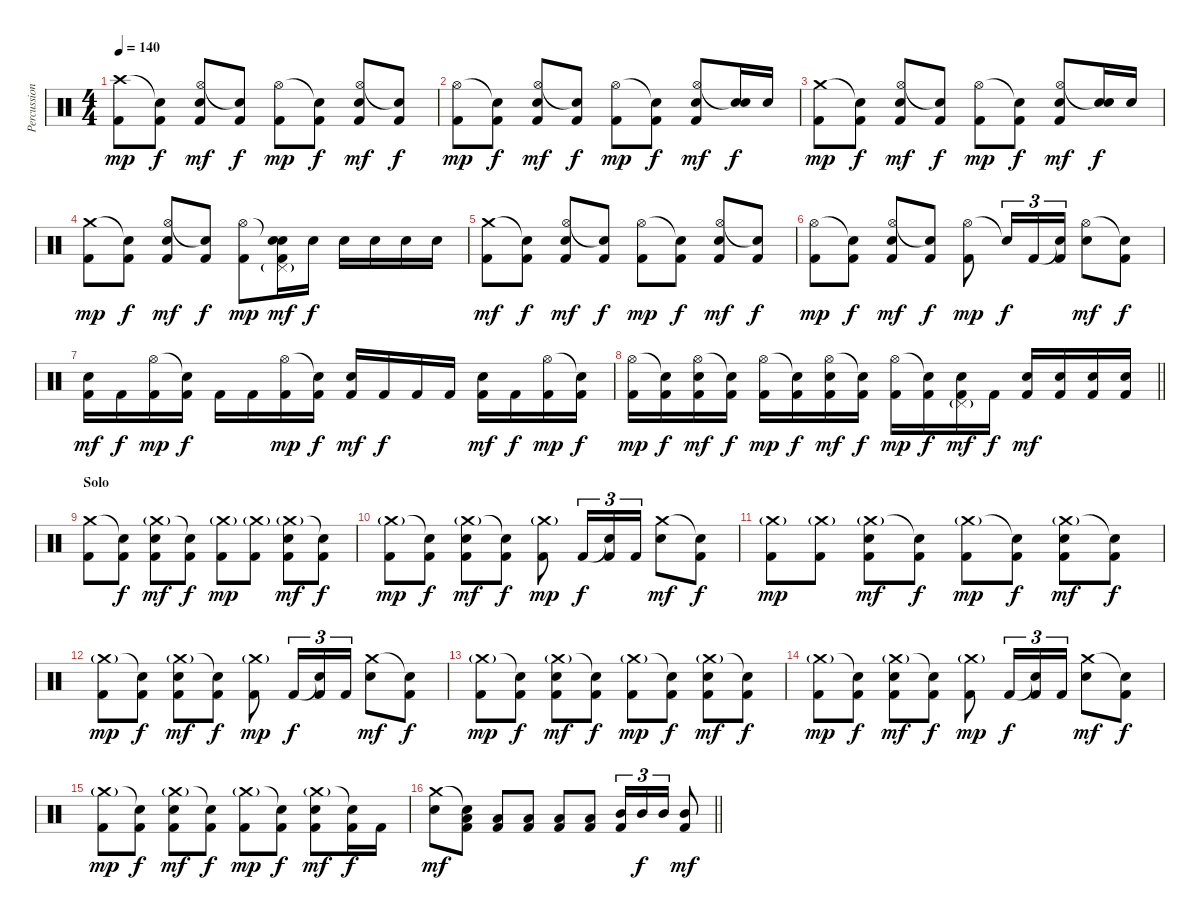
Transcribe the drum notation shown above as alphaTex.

\track ("Percussion" "Percussion") {instrument percussion}
\staff {score}
\articulation defaults
\ts (4 4)
\tempo 140
\clef neutral
\ks c
("Crash high (hit)" "Kick (hit) 2").8{dy mp} ("Snare (hit)"{t} "Kick (hit) 2").8{dy f} ("Hi-Hat (open)" "Electric Snare (hit)" "Kick (hit) 2").8{dy mf} ("Snare (hit)"{t} "Kick (hit) 2").8{dy f} ("Hi-Hat (open)" "Kick (hit) 2").8{dy mp} ("Snare (hit)"{t} "Kick (hit) 2").8{dy f} ("Hi-Hat (open)" "Electric Snare (hit)" "Kick (hit) 2").8{dy mf} ("Snare (hit)"{t} "Kick (hit) 2").8{dy f} |
("Hi-Hat (open)" "Kick (hit) 2").8{dy mp} ("Snare (hit)"{t} "Kick (hit) 2").8{dy f} ("Hi-Hat (open)" "Electric Snare (hit)" "Kick (hit) 2").8{dy mf} ("Snare (hit)"{t} "Kick (hit) 2").8{dy f} ("Hi-Hat (open)" "Kick (hit) 2").8{dy mp} ("Snare (hit)"{t} "Kick (hit) 2").8{dy f} ("Hi-Hat (open)" "Electric Snare (hit)" "Kick (hit) 2").8{dy mf} ("Snare (hit)"{t} "Electric Snare (hit)").16{dy f} "Electric Snare (hit)".16 |
("Crash medium (hit)" "Kick (hit) 2").8{dy mp} ("Snare (hit)"{t} "Kick (hit) 2").8{dy f} ("Hi-Hat (open)" "Electric Snare (hit)" "Kick (hit) 2").8{dy mf} ("Snare (hit)"{t} "Kick (hit) 2").8{dy f} ("Hi-Hat (open)" "Kick (hit) 2").8{dy mp} ("Snare (hit)"{t} "Kick (hit) 2").8{dy f} ("Hi-Hat (open)" "Electric Snare (hit)" "Kick (hit) 2").8{dy mf} ("Snare (hit)"{t} "Electric Snare (hit)").16{dy f} "Electric Snare (hit)".16 |
("Crash medium (hit)" "Kick (hit) 2").8{dy mp} ("Snare (hit)"{t} "Kick (hit) 2").8{dy f} ("Hi-Hat (open)" "Electric Snare (hit)" "Kick (hit) 2").8{dy mf} ("Snare (hit)"{t} "Kick (hit) 2").8{dy f} ("Hi-Hat (open)" "Kick (hit) 2").8{dy mp} ("Snare (hit)"{t} "Pedal Hi-Hat (hit)"{g} "Electric Snare (hit)" "Kick (hit) 2").16{dy mf} "Electric Snare (hit)".16{dy f} "Electric Snare (hit)".16 "Electric Snare (hit)".16 "Electric Snare (hit)".16 "Electric Snare (hit)".16 |
("Crash medium (hit)" "Kick (hit) 2").8{dy mf} ("Snare (hit)"{t} "Kick (hit) 2").8{dy f} ("Hi-Hat (open)" "Electric Snare (hit)" "Kick (hit) 2").8{dy mf} ("Snare (hit)"{t} "Kick (hit) 2").8{dy f} ("Hi-Hat (open)" "Kick (hit) 2").8{dy mp} ("Snare (hit)"{t} "Kick (hit) 2").8{dy f} ("Hi-Hat (open)" "Electric Snare (hit)" "Kick (hit) 2").8{dy mf} ("Snare (hit)"{t} "Kick (hit) 2").8{dy f} |
("Hi-Hat (open)" "Kick (hit) 2").8{dy mp} ("Snare (hit)"{t} "Kick (hit) 2").8{dy f} ("Hi-Hat (open)" "Electric Snare (hit)" "Kick (hit) 2").8{dy mf} ("Snare (hit)"{t} "Kick (hit) 2").8{dy f} ("Hi-Hat (open)" "Kick (hit) 2").8{dy mp} "Snare (hit)"{t}.16{tu (3 2) dy f} "Kick (hit) 2".16{tu (3 2)} ("Snare (hit)"{t} "Kick (hit) 2").16{tu (3 2)} ("Hi-Hat (open)" "Electric Snare (hit)").8{dy mf} ("Snare (hit)"{t} "Kick (hit) 2").8{dy f} |
("Electric Snare (hit)" "Kick (hit) 2").16{dy mf} "Kick (hit) 2".16{dy f} ("Hi-Hat (open)" "Kick (hit) 2").16{dy mp} ("Snare (hit)"{t} "Kick (hit) 2").16{dy f} "Kick (hit) 2".16 "Kick (hit) 2".16 ("Hi-Hat (open)" "Kick (hit) 2").16{dy mp} ("Snare (hit)"{t} "Kick (hit) 2").16{dy f} ("Electric Snare (hit)" "Kick (hit) 2").16{dy mf} "Kick (hit) 2".16{dy f} "Kick (hit) 2".16 "Kick (hit) 2".16 ("Electric Snare (hit)" "Kick (hit) 2").16{dy mf} "Kick (hit) 2".16{dy f} ("Hi-Hat (open)" "Kick (hit) 2").16{dy mp} ("Snare (hit)"{t} "Kick (hit) 2").16{dy f} |
\barLineRight lightlight
("Hi-Hat (open)" "Kick (hit) 2").16{dy mp} ("Snare (hit)"{t} "Kick (hit) 2").16{dy f} ("Hi-Hat (open)" "Electric Snare (hit)" "Kick (hit) 2").16{dy mf} ("Snare (hit)"{t} "Kick (hit) 2").16{dy f} ("Hi-Hat (open)" "Kick (hit) 2").16{dy mp} ("Snare (hit)"{t} "Kick (hit) 2").16{dy f} ("Hi-Hat (open)" "Electric Snare (hit)" "Kick (hit) 2").16{dy mf} ("Snare (hit)"{t} "Kick (hit) 2").16{dy f} ("Hi-Hat (open)" "Kick (hit) 2").16{dy mp} ("Snare (hit)"{t} "Kick (hit) 2").16{dy f} ("Pedal Hi-Hat (hit)"{g} "Electric Snare (hit)" "Kick (hit) 2").16{dy mf} "Kick (hit) 2".16{dy f} ("Electric Snare (hit)" "Kick (hit) 2").16{dy mf} ("Electric Snare (hit)" "Kick (hit) 2").16 ("Electric Snare (hit)" "Kick (hit) 2").16 ("Electric Snare (hit)" "Kick (hit) 2").16 |
\section ("" "Solo")
("Crash medium (hit)" "Kick (hit) 2").8 ("Snare (hit)"{t} "Kick (hit) 2").8{dy f} ("Crash medium (hit)"{g} "Electric Snare (hit)" "Kick (hit) 2").8{dy mf} ("Snare (hit)"{t} "Kick (hit) 2").8{dy f} ("Crash medium (hit)"{g} "Kick (hit) 2").8{dy mp} ("Crash medium (hit)"{g} "Kick (hit) 2").8 ("Crash medium (hit)"{g} "Electric Snare (hit)" "Kick (hit) 2").8{dy mf} ("Snare (hit)"{t} "Kick (hit) 2").8{dy f} |
("Crash medium (hit)"{g} "Kick (hit) 2").8{dy mp} ("Snare (hit)"{t} "Kick (hit) 2").8{dy f} ("Crash medium (hit)"{g} "Electric Snare (hit)" "Kick (hit) 2").8{dy mf} ("Snare (hit)"{t} "Kick (hit) 2").8{dy f} ("Crash medium (hit)"{g} "Kick (hit) 2").8{dy mp} "Kick (hit) 2".16{tu (3 2) dy f} ("Snare (hit)"{t} "Kick (hit) 2").16{tu (3 2)} "Kick (hit) 2".16{tu (3 2)} ("Crash medium (hit)" "Electric Snare (hit)").8{dy mf} ("Snare (hit)"{t} "Kick (hit) 2").8{dy f} |
("Crash medium (hit)"{g} "Kick (hit) 2").8{dy mp} ("Crash medium (hit)"{g} "Kick (hit) 2").8 ("Crash medium (hit)"{g} "Electric Snare (hit)" "Kick (hit) 2").8{dy mf} ("Snare (hit)"{t} "Kick (hit) 2").8{dy f} ("Crash medium (hit)"{g} "Kick (hit) 2").8{dy mp} ("Snare (hit)"{t} "Kick (hit) 2").8{dy f} ("Crash medium (hit)"{g} "Electric Snare (hit)" "Kick (hit) 2").8{dy mf} ("Snare (hit)"{t} "Kick (hit) 2").8{dy f} |
("Crash medium (hit)"{g} "Kick (hit) 2").8{dy mp} ("Snare (hit)"{t} "Kick (hit) 2").8{dy f} ("Crash medium (hit)"{g} "Electric Snare (hit)" "Kick (hit) 2").8{dy mf} ("Snare (hit)"{t} "Kick (hit) 2").8{dy f} ("Crash medium (hit)"{g} "Kick (hit) 2").8{dy mp} "Kick (hit) 2".16{tu (3 2) dy f} ("Snare (hit)"{t} "Kick (hit) 2").16{tu (3 2)} "Kick (hit) 2".16{tu (3 2)} ("Crash medium (hit)" "Electric Snare (hit)").8{dy mf} ("Snare (hit)"{t} "Kick (hit) 2").8{dy f} |
("Crash medium (hit)"{g} "Kick (hit) 2").8{dy mp} ("Snare (hit)"{t} "Kick (hit) 2").8{dy f} ("Crash medium (hit)"{g} "Electric Snare (hit)" "Kick (hit) 2").8{dy mf} ("Snare (hit)"{t} "Kick (hit) 2").8{dy f} ("Crash medium (hit)"{g} "Kick (hit) 2").8{dy mp} ("Snare (hit)"{t} "Kick (hit) 2").8{dy f} ("Crash medium (hit)"{g} "Electric Snare (hit)" "Kick (hit) 2").8{dy mf} ("Snare (hit)"{t} "Kick (hit) 2").8{dy f} |
("Crash medium (hit)"{g} "Kick (hit) 2").8{dy mp} ("Snare (hit)"{t} "Kick (hit) 2").8{dy f} ("Crash medium (hit)"{g} "Electric Snare (hit)" "Kick (hit) 2").8{dy mf} ("Snare (hit)"{t} "Kick (hit) 2").8{dy f} ("Crash medium (hit)"{g} "Kick (hit) 2").8{dy mp} "Kick (hit) 2".16{tu (3 2) dy f} ("Snare (hit)"{t} "Kick (hit) 2").16{tu (3 2)} "Kick (hit) 2".16{tu (3 2)} ("Crash medium (hit)" "Electric Snare (hit)").8{dy mf} ("Snare (hit)"{t} "Kick (hit) 2").8{dy f} |
("Crash medium (hit)"{g} "Kick (hit) 2").8{dy mp} ("Snare (hit)"{t} "Kick (hit) 2").8{dy f} ("Crash medium (hit)"{g} "Electric Snare (hit)" "Kick (hit) 2").8{dy mf} ("Snare (hit)"{t} "Kick (hit) 2").8{dy f} ("Crash medium (hit)"{g} "Kick (hit) 2").8{dy mp} ("Snare (hit)"{t} "Kick (hit) 2").8{dy f} ("Crash medium (hit)"{g} "Electric Snare (hit)" "Kick (hit) 2").8{dy mf} ("Snare (hit)"{t} "Kick (hit) 2").16{dy f} "Kick (hit) 2".16 |
\barLineRight lightlight
("Crash medium (hit)" "Electric Snare (hit)").8{dy mf} ("Snare (hit)"{t} "Low Tom (hit)" "Kick (hit) 2").8 ("Low Tom (hit)" "Kick (hit) 2").8 ("Low Tom (hit)" "Kick (hit) 2").8 ("Low Tom (hit)" "Kick (hit) 2").8 ("Low Tom (hit)" "Kick (hit) 2").8 ("Mid Tom (hit)" "Kick (hit) 2").16{tu (3 2)} "Mid Tom (hit)".16{tu (3 2) dy f} "Mid Tom (hit)".16{tu (3 2)} ("Mid Tom (hit)" "Kick (hit) 2").8{dy mf}
